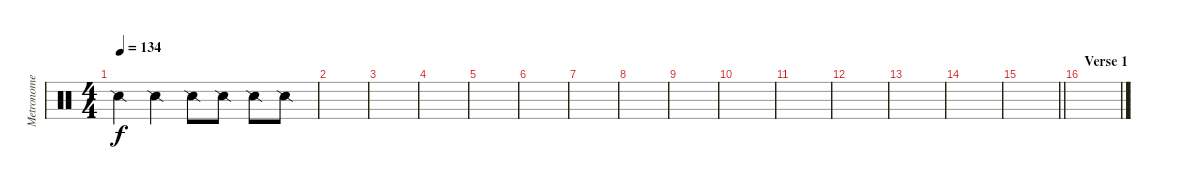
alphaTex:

\track ("Metronome" "Metronome") {instrument percussion}
\staff {score}
\articulation defaults
\ts (4 4)
\tempo 134
\clef neutral
\ks c "Snare (side stick) 2".4{dy f} "Snare (side stick) 2".4 "Snare (side stick) 2".8 "Snare (side stick) 2".8 "Snare (side stick) 2".8 "Snare (side stick) 2".8
|
|
|
|
|
|
|
|
|
|
|
|
|
|
\barLineRight lightlight
|
\section ("" "Verse 1")
